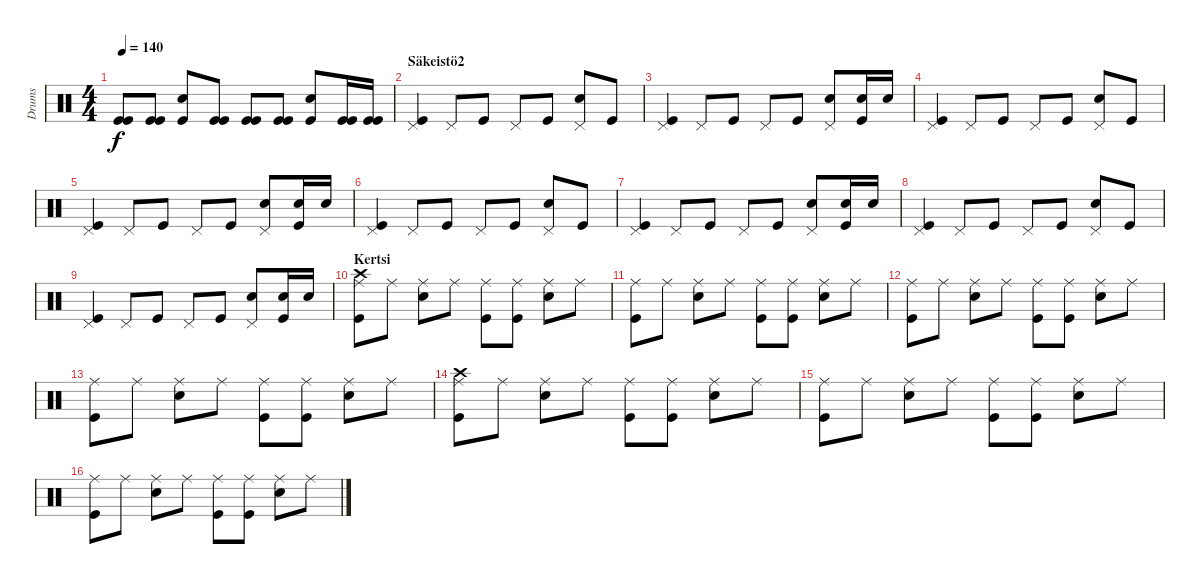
\track ("Drums" "Drums") {instrument percussion}
\staff {score}
\articulation defaults
\ts (4 4)
\tempo 140
\clef neutral
\ks c
("Kick (hit)" "Kick (hit)").8{dy f} ("Kick (hit)" "Kick (hit)").8 ("Snare (hit) 2" "Kick (hit)").8 ("Kick (hit)" "Kick (hit)").8 ("Kick (hit)" "Kick (hit)").8 ("Kick (hit)" "Kick (hit)").8 ("Snare (hit) 2" "Kick (hit)").8 ("Kick (hit)" "Kick (hit)").16 ("Kick (hit)" "Kick (hit)").16 |
\section ("" "Säkeistö2")
("Pedal Hi-Hat (hit)" "Kick (hit)").4 "Pedal Hi-Hat (hit)".8 "Kick (hit)".8 "Pedal Hi-Hat (hit)".8 "Kick (hit)".8 ("Pedal Hi-Hat (hit)" "Snare (hit) 2").8 "Kick (hit)".8 |
("Pedal Hi-Hat (hit)" "Kick (hit)").4 "Pedal Hi-Hat (hit)".8 "Kick (hit)".8 "Pedal Hi-Hat (hit)".8 "Kick (hit)".8 ("Pedal Hi-Hat (hit)" "Snare (hit) 2").8 ("Snare (hit) 2" "Kick (hit)").16 "Snare (hit) 2".16 |
("Pedal Hi-Hat (hit)" "Kick (hit)").4 "Pedal Hi-Hat (hit)".8 "Kick (hit)".8 "Pedal Hi-Hat (hit)".8 "Kick (hit)".8 ("Pedal Hi-Hat (hit)" "Snare (hit) 2").8 "Kick (hit)".8 |
("Pedal Hi-Hat (hit)" "Kick (hit)").4 "Pedal Hi-Hat (hit)".8 "Kick (hit)".8 "Pedal Hi-Hat (hit)".8 "Kick (hit)".8 ("Pedal Hi-Hat (hit)" "Snare (hit) 2").8 ("Snare (hit) 2" "Kick (hit)").16 "Snare (hit) 2".16 |
("Pedal Hi-Hat (hit)" "Kick (hit)").4 "Pedal Hi-Hat (hit)".8 "Kick (hit)".8 "Pedal Hi-Hat (hit)".8 "Kick (hit)".8 ("Pedal Hi-Hat (hit)" "Snare (hit) 2").8 "Kick (hit)".8 |
("Pedal Hi-Hat (hit)" "Kick (hit)").4 "Pedal Hi-Hat (hit)".8 "Kick (hit)".8 "Pedal Hi-Hat (hit)".8 "Kick (hit)".8 ("Pedal Hi-Hat (hit)" "Snare (hit) 2").8 ("Snare (hit) 2" "Kick (hit)").16 "Snare (hit) 2".16 |
("Pedal Hi-Hat (hit)" "Kick (hit)").4 "Pedal Hi-Hat (hit)".8 "Kick (hit)".8 "Pedal Hi-Hat (hit)".8 "Kick (hit)".8 ("Pedal Hi-Hat (hit)" "Snare (hit) 2").8 "Kick (hit)".8 |
("Pedal Hi-Hat (hit)" "Kick (hit)").4 "Pedal Hi-Hat (hit)".8 "Kick (hit)".8 "Pedal Hi-Hat (hit)".8 "Kick (hit)".8 ("Pedal Hi-Hat (hit)" "Snare (hit) 2").8 ("Snare (hit) 2" "Kick (hit)").16 "Snare (hit) 2".16 |
\section ("" "Kertsi")
("Ride (middle)" "Crash high (hit)" "Kick (hit)").8 "Ride (middle)".8 ("Ride (middle)" "Snare (hit) 2").8 "Ride (middle)".8 ("Ride (middle)" "Kick (hit)").8 ("Ride (middle)" "Kick (hit)").8 ("Ride (middle)" "Snare (hit) 2").8 "Ride (middle)".8 |
("Ride (middle)" "Kick (hit)").8 "Ride (middle)".8 ("Ride (middle)" "Snare (hit) 2").8 "Ride (middle)".8 ("Ride (middle)" "Kick (hit)").8 ("Ride (middle)" "Kick (hit)").8 ("Ride (middle)" "Snare (hit) 2").8 "Ride (middle)".8 |
("Ride (middle)" "Kick (hit)").8 "Ride (middle)".8 ("Ride (middle)" "Snare (hit) 2").8 "Ride (middle)".8 ("Ride (middle)" "Kick (hit)").8 ("Ride (middle)" "Kick (hit)").8 ("Ride (middle)" "Snare (hit) 2").8 "Ride (middle)".8 |
("Ride (middle)" "Kick (hit)").8 "Ride (middle)".8 ("Ride (middle)" "Snare (hit) 2").8 "Ride (middle)".8 ("Ride (middle)" "Kick (hit)").8 ("Ride (middle)" "Kick (hit)").8 ("Ride (middle)" "Snare (hit) 2").8 "Ride (middle)".8 |
("Ride (middle)" "Crash high (hit)" "Kick (hit)").8 "Ride (middle)".8 ("Ride (middle)" "Snare (hit) 2").8 "Ride (middle)".8 ("Ride (middle)" "Kick (hit)").8 ("Ride (middle)" "Kick (hit)").8 ("Ride (middle)" "Snare (hit) 2").8 "Ride (middle)".8 |
("Ride (middle)" "Kick (hit)").8 "Ride (middle)".8 ("Ride (middle)" "Snare (hit) 2").8 "Ride (middle)".8 ("Ride (middle)" "Kick (hit)").8 ("Ride (middle)" "Kick (hit)").8 ("Ride (middle)" "Snare (hit) 2").8 "Ride (middle)".8 |
("Ride (middle)" "Kick (hit)").8 "Ride (middle)".8 ("Ride (middle)" "Snare (hit) 2").8 "Ride (middle)".8 ("Ride (middle)" "Kick (hit)").8 ("Ride (middle)" "Kick (hit)").8 ("Ride (middle)" "Snare (hit) 2").8 "Ride (middle)".8
